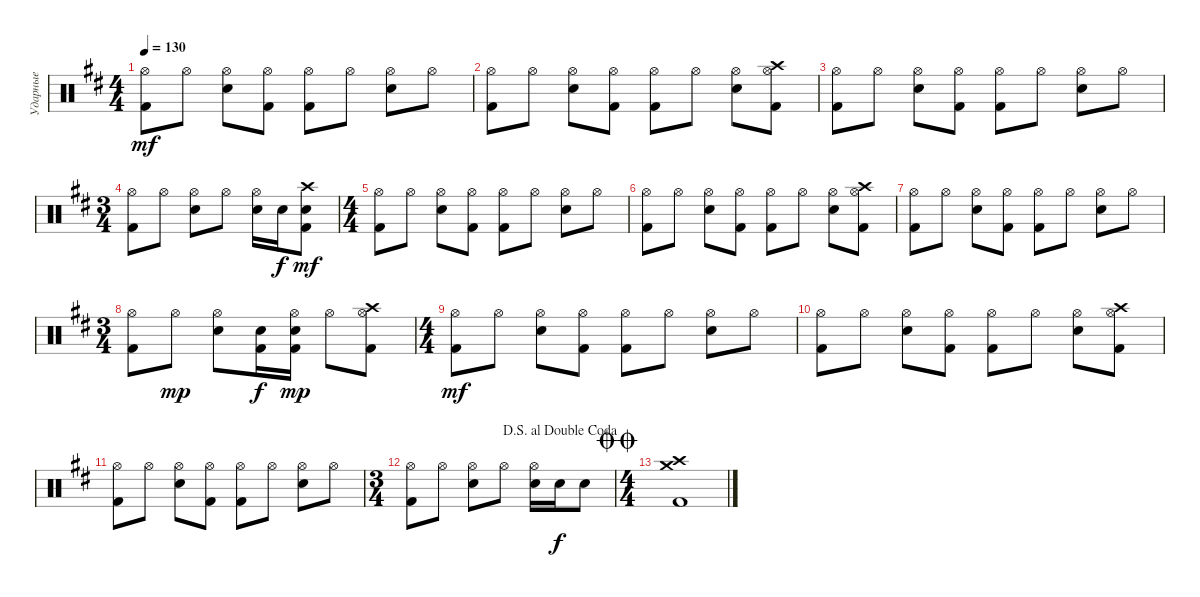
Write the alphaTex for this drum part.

\track ("Ударные" "Ударные") {instrument percussion}
\staff {score}
\articulation defaults
\ts (4 4)
\tempo 130
\clef neutral
\ks d
("Hi-Hat (open)" "Kick (hit) 2").8{dy mf} "Hi-Hat (open)".8 ("Electric Snare (hit)" "Hi-Hat (open)").8 ("Kick (hit) 2" "Hi-Hat (open)").8 ("Kick (hit) 2" "Hi-Hat (open)").8 "Hi-Hat (open)".8 ("Electric Snare (hit)" "Hi-Hat (open)").8 "Hi-Hat (open)".8 |
("Hi-Hat (open)" "Kick (hit) 2").8 "Hi-Hat (open)".8 ("Electric Snare (hit)" "Hi-Hat (open)").8 ("Kick (hit) 2" "Hi-Hat (open)").8 ("Kick (hit) 2" "Hi-Hat (open)").8 "Hi-Hat (open)".8 ("Electric Snare (hit)" "Hi-Hat (open)").8 ("Hi-Hat (open)" "Crash high (hit)" "Kick (hit) 2").8 |
("Hi-Hat (open)" "Kick (hit) 2").8 "Hi-Hat (open)".8 ("Electric Snare (hit)" "Hi-Hat (open)").8 ("Kick (hit) 2" "Hi-Hat (open)").8 ("Kick (hit) 2" "Hi-Hat (open)").8 "Hi-Hat (open)".8 ("Electric Snare (hit)" "Hi-Hat (open)").8 "Hi-Hat (open)".8 |
\ts (3 4)
("Hi-Hat (open)" "Kick (hit) 2").8 "Hi-Hat (open)".8 ("Electric Snare (hit)" "Hi-Hat (open)").8 "Hi-Hat (open)".8 ("Electric Snare (hit)" "Hi-Hat (open)").16 "Electric Snare (hit)".16{dy f} ("Electric Snare (hit)" "Crash high (hit)" "Kick (hit) 2").8{dy mf} |
\ts (4 4)
("Hi-Hat (open)" "Kick (hit) 2").8 "Hi-Hat (open)".8 ("Electric Snare (hit)" "Hi-Hat (open)").8 ("Kick (hit) 2" "Hi-Hat (open)").8 ("Kick (hit) 2" "Hi-Hat (open)").8 "Hi-Hat (open)".8 ("Electric Snare (hit)" "Hi-Hat (open)").8 "Hi-Hat (open)".8 |
("Hi-Hat (open)" "Kick (hit) 2").8 "Hi-Hat (open)".8 ("Electric Snare (hit)" "Hi-Hat (open)").8 ("Kick (hit) 2" "Hi-Hat (open)").8 ("Kick (hit) 2" "Hi-Hat (open)").8 "Hi-Hat (open)".8 ("Electric Snare (hit)" "Hi-Hat (open)").8 ("Hi-Hat (open)" "Crash high (hit)" "Kick (hit) 2").8 |
("Hi-Hat (open)" "Kick (hit) 2").8 "Hi-Hat (open)".8 ("Electric Snare (hit)" "Hi-Hat (open)").8 ("Kick (hit) 2" "Hi-Hat (open)").8 ("Kick (hit) 2" "Hi-Hat (open)").8 "Hi-Hat (open)".8 ("Electric Snare (hit)" "Hi-Hat (open)").8 "Hi-Hat (open)".8 |
\ts (3 4)
("Hi-Hat (open)" "Kick (hit) 2").8 "Hi-Hat (open)".8{dy mp} ("Electric Snare (hit)" "Hi-Hat (open)").8 ("Kick (hit) 2" "Electric Snare (hit)").16{dy f} ("Kick (hit) 2" "Hi-Hat (open)" "Electric Snare (hit)").16{dy mp} "Hi-Hat (open)".8 ("Hi-Hat (open)" "Kick (hit) 2" "Crash high (hit)").8 |
\ts (4 4)
("Hi-Hat (open)" "Kick (hit) 2").8{dy mf} "Hi-Hat (open)".8 ("Electric Snare (hit)" "Hi-Hat (open)").8 ("Kick (hit) 2" "Hi-Hat (open)").8 ("Kick (hit) 2" "Hi-Hat (open)").8 "Hi-Hat (open)".8 ("Electric Snare (hit)" "Hi-Hat (open)").8 "Hi-Hat (open)".8 |
("Hi-Hat (open)" "Kick (hit) 2").8 "Hi-Hat (open)".8 ("Electric Snare (hit)" "Hi-Hat (open)").8 ("Kick (hit) 2" "Hi-Hat (open)").8 ("Kick (hit) 2" "Hi-Hat (open)").8 "Hi-Hat (open)".8 ("Electric Snare (hit)" "Hi-Hat (open)").8 ("Hi-Hat (open)" "Crash high (hit)" "Kick (hit) 2").8 |
("Hi-Hat (open)" "Kick (hit) 2").8 "Hi-Hat (open)".8 ("Electric Snare (hit)" "Hi-Hat (open)").8 ("Kick (hit) 2" "Hi-Hat (open)").8 ("Kick (hit) 2" "Hi-Hat (open)").8 "Hi-Hat (open)".8 ("Electric Snare (hit)" "Hi-Hat (open)").8 "Hi-Hat (open)".8 |
\ts (3 4)
\jump dalsegnoaldoublecoda
("Hi-Hat (open)" "Kick (hit) 2").8 "Hi-Hat (open)".8 ("Electric Snare (hit)" "Hi-Hat (open)").8 "Hi-Hat (open)".8 ("Electric Snare (hit)" "Hi-Hat (open)").16 "Electric Snare (hit)".16{dy f} "Electric Snare (hit)".8 |
\ts (4 4)
\jump doublecoda
("Crash high (hit)" "Crash medium (hit)" "Kick (hit) 2").1
